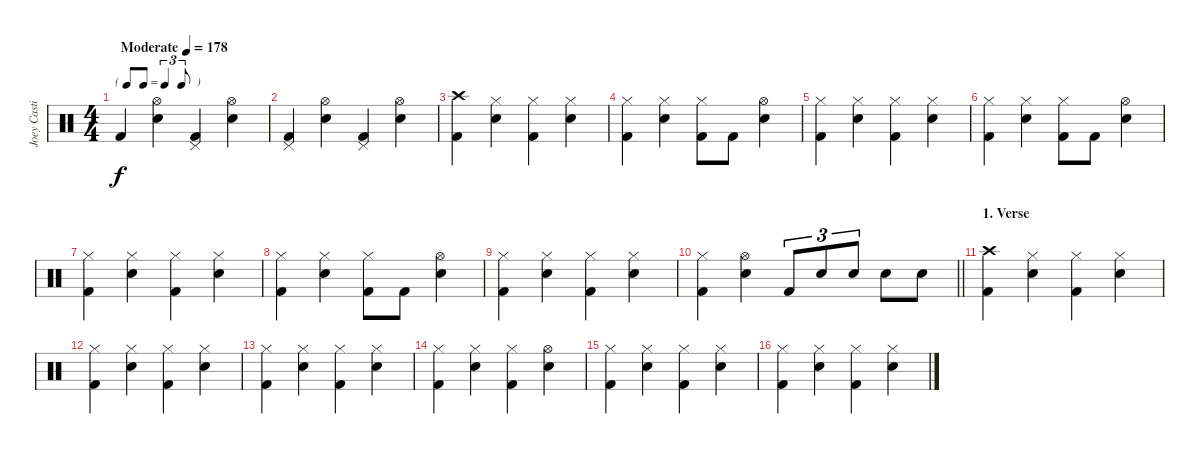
\track ("Joey Castillo" "Joey Casti") {instrument percussion}
\staff {score}
\articulation defaults
\ts (4 4)
\tf triplet8th
\tempo (178 "Moderate")
\clef neutral
\ks c "Kick (hit) 2".4{dy f}
("Hi-Hat (open)" "Snare (hit) 2").4 ("Pedal Hi-Hat (hit)" "Kick (hit) 2").4 ("Hi-Hat (open)" "Snare (hit) 2").4 |
("Pedal Hi-Hat (hit)" "Kick (hit) 2").4 ("Hi-Hat (open)" "Snare (hit) 2").4 ("Pedal Hi-Hat (hit)" "Kick (hit) 2").4 ("Hi-Hat (open)" "Snare (hit) 2").4 |
("Crash high (hit)" "Kick (hit) 2").4 ("Hi-Hat (closed)" "Snare (hit) 2").4 ("Hi-Hat (closed)" "Kick (hit) 2").4 ("Hi-Hat (closed)" "Snare (hit) 2").4 |
("Hi-Hat (closed)" "Kick (hit) 2").4 ("Hi-Hat (closed)" "Snare (hit) 2").4 ("Hi-Hat (closed)" "Kick (hit) 2").8 "Kick (hit) 2".8 ("Hi-Hat (open)" "Snare (hit) 2").4 |
("Hi-Hat (closed)" "Kick (hit) 2").4 ("Hi-Hat (closed)" "Snare (hit) 2").4 ("Hi-Hat (closed)" "Kick (hit) 2").4 ("Hi-Hat (closed)" "Snare (hit) 2").4 |
("Hi-Hat (closed)" "Kick (hit) 2").4 ("Hi-Hat (closed)" "Snare (hit) 2").4 ("Hi-Hat (closed)" "Kick (hit) 2").8 "Kick (hit) 2".8 ("Hi-Hat (open)" "Snare (hit) 2").4 |
("Hi-Hat (closed)" "Kick (hit) 2").4 ("Hi-Hat (closed)" "Snare (hit) 2").4 ("Hi-Hat (closed)" "Kick (hit) 2").4 ("Hi-Hat (closed)" "Snare (hit) 2").4 |
("Hi-Hat (closed)" "Kick (hit) 2").4 ("Hi-Hat (closed)" "Snare (hit) 2").4 ("Hi-Hat (closed)" "Kick (hit) 2").8 "Kick (hit) 2".8 ("Hi-Hat (open)" "Snare (hit) 2").4 |
("Hi-Hat (closed)" "Kick (hit) 2").4 ("Hi-Hat (closed)" "Snare (hit) 2").4 ("Hi-Hat (closed)" "Kick (hit) 2").4 ("Hi-Hat (closed)" "Snare (hit) 2").4 |
\barLineRight lightlight
("Hi-Hat (closed)" "Kick (hit) 2").4 ("Hi-Hat (open)" "Snare (hit) 2").4 "Kick (hit) 2".8{tu (3 2)} "Snare (hit) 2".8{tu (3 2)} "Snare (hit) 2".8{tu (3 2)} "Snare (hit) 2".8 "Snare (hit) 2".8 |
\section ("" "1. Verse")
("Crash high (hit)" "Kick (hit) 2").4 ("Hi-Hat (closed)" "Snare (hit) 2").4 ("Hi-Hat (closed)" "Kick (hit) 2").4 ("Hi-Hat (closed)" "Snare (hit) 2").4 |
("Hi-Hat (closed)" "Kick (hit) 2").4 ("Hi-Hat (closed)" "Snare (hit) 2").4 ("Hi-Hat (closed)" "Kick (hit) 2").4 ("Hi-Hat (closed)" "Snare (hit) 2").4 |
("Hi-Hat (closed)" "Kick (hit) 2").4 ("Hi-Hat (closed)" "Snare (hit) 2").4 ("Hi-Hat (closed)" "Kick (hit) 2").4 ("Hi-Hat (closed)" "Snare (hit) 2").4 |
("Hi-Hat (closed)" "Kick (hit) 2").4 ("Hi-Hat (closed)" "Snare (hit) 2").4 ("Hi-Hat (closed)" "Kick (hit) 2").4 ("Hi-Hat (open)" "Snare (hit) 2").4 |
("Hi-Hat (closed)" "Kick (hit) 2").4 ("Hi-Hat (closed)" "Snare (hit) 2").4 ("Hi-Hat (closed)" "Kick (hit) 2").4 ("Hi-Hat (closed)" "Snare (hit) 2").4 |
("Hi-Hat (closed)" "Kick (hit) 2").4 ("Hi-Hat (closed)" "Snare (hit) 2").4 ("Hi-Hat (closed)" "Kick (hit) 2").4 ("Hi-Hat (closed)" "Snare (hit) 2").4
